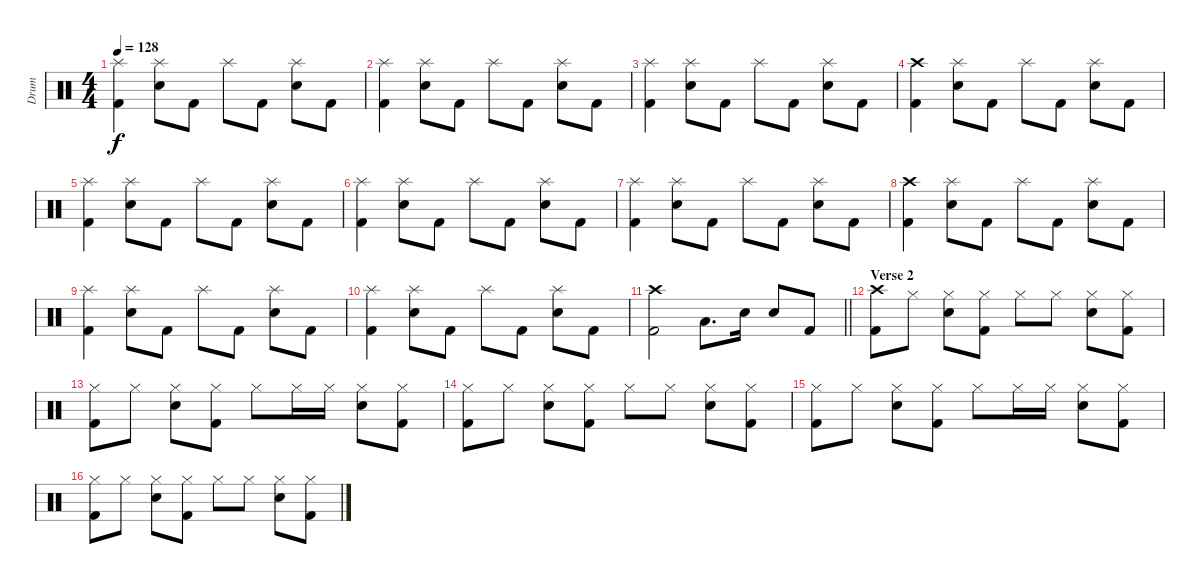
\track ("Drum" "Drum") {instrument percussion}
\staff {score}
\articulation defaults
\ts (4 4)
\tempo 128
\clef neutral
\ks c
("Splash (hit)" "Kick (hit) 2").4{dy f} ("Splash (hit)" "Electric Snare (hit)").8 "Kick (hit) 2".8 "Splash (hit)".8 "Kick (hit) 2".8 ("Splash (hit)" "Electric Snare (hit)").8 "Kick (hit) 2".8 |
("Splash (hit)" "Kick (hit) 2").4 ("Splash (hit)" "Electric Snare (hit)").8 "Kick (hit) 2".8 "Splash (hit)".8 "Kick (hit) 2".8 ("Splash (hit)" "Electric Snare (hit)").8 "Kick (hit) 2".8 |
("Splash (hit)" "Kick (hit) 2").4 ("Splash (hit)" "Electric Snare (hit)").8 "Kick (hit) 2".8 "Splash (hit)".8 "Kick (hit) 2".8 ("Splash (hit)" "Electric Snare (hit)").8 "Kick (hit) 2".8 |
("Crash high (hit)" "Kick (hit) 2").4 ("Splash (hit)" "Electric Snare (hit)").8 "Kick (hit) 2".8 "Splash (hit)".8 "Kick (hit) 2".8 ("Splash (hit)" "Electric Snare (hit)").8 "Kick (hit) 2".8 |
("Splash (hit)" "Kick (hit) 2").4 ("Splash (hit)" "Electric Snare (hit)").8 "Kick (hit) 2".8 "Splash (hit)".8 "Kick (hit) 2".8 ("Splash (hit)" "Electric Snare (hit)").8 "Kick (hit) 2".8 |
("Splash (hit)" "Kick (hit) 2").4 ("Splash (hit)" "Electric Snare (hit)").8 "Kick (hit) 2".8 "Splash (hit)".8 "Kick (hit) 2".8 ("Splash (hit)" "Electric Snare (hit)").8 "Kick (hit) 2".8 |
("Splash (hit)" "Kick (hit) 2").4 ("Splash (hit)" "Electric Snare (hit)").8 "Kick (hit) 2".8 "Splash (hit)".8 "Kick (hit) 2".8 ("Splash (hit)" "Electric Snare (hit)").8 "Kick (hit) 2".8 |
("Crash high (hit)" "Kick (hit) 2").4 ("Splash (hit)" "Electric Snare (hit)").8 "Kick (hit) 2".8 "Splash (hit)".8 "Kick (hit) 2".8 ("Splash (hit)" "Electric Snare (hit)").8 "Kick (hit) 2".8 |
("Splash (hit)" "Kick (hit) 2").4 ("Splash (hit)" "Electric Snare (hit)").8 "Kick (hit) 2".8 "Splash (hit)".8 "Kick (hit) 2".8 ("Splash (hit)" "Electric Snare (hit)").8 "Kick (hit) 2".8 |
("Splash (hit)" "Kick (hit) 2").4 ("Splash (hit)" "Electric Snare (hit)").8 "Kick (hit) 2".8 "Splash (hit)".8 "Kick (hit) 2".8 ("Splash (hit)" "Electric Snare (hit)").8 "Kick (hit) 2".8 |
\barLineRight lightlight
("Crash high (hit)" "Kick (hit) 2").2 "Low Tom (hit)".8{d} "Electric Snare (hit)".16 "Electric Snare (hit)".8 "Kick (hit) 2".8 |
\section ("" "Verse 2")
("Crash high (hit)" "Kick (hit) 2").8 "Hi-Hat (closed)".8 ("Hi-Hat (closed)" "Electric Snare (hit)").8 ("Hi-Hat (closed)" "Kick (hit) 2").8 "Hi-Hat (closed)".8 "Hi-Hat (closed)".8 ("Hi-Hat (closed)" "Electric Snare (hit)").8 ("Hi-Hat (closed)" "Kick (hit) 2").8 |
("Hi-Hat (closed)" "Kick (hit) 2").8 "Hi-Hat (closed)".8 ("Hi-Hat (closed)" "Electric Snare (hit)").8 ("Hi-Hat (closed)" "Kick (hit) 2").8 "Hi-Hat (closed)".8 "Hi-Hat (closed)".16 "Hi-Hat (closed)".16 ("Hi-Hat (closed)" "Electric Snare (hit)").8 ("Hi-Hat (closed)" "Kick (hit) 2").8 |
("Hi-Hat (closed)" "Kick (hit) 2").8 "Hi-Hat (closed)".8 ("Hi-Hat (closed)" "Electric Snare (hit)").8 ("Hi-Hat (closed)" "Kick (hit) 2").8 "Hi-Hat (closed)".8 "Hi-Hat (closed)".8 ("Hi-Hat (closed)" "Electric Snare (hit)").8 ("Hi-Hat (closed)" "Kick (hit) 2").8 |
("Hi-Hat (closed)" "Kick (hit) 2").8 "Hi-Hat (closed)".8 ("Hi-Hat (closed)" "Electric Snare (hit)").8 ("Hi-Hat (closed)" "Kick (hit) 2").8 "Hi-Hat (closed)".8 "Hi-Hat (closed)".16 "Hi-Hat (closed)".16 ("Hi-Hat (closed)" "Electric Snare (hit)").8 ("Hi-Hat (closed)" "Kick (hit) 2").8 |
("Hi-Hat (closed)" "Kick (hit) 2").8 "Hi-Hat (closed)".8 ("Hi-Hat (closed)" "Electric Snare (hit)").8 ("Hi-Hat (closed)" "Kick (hit) 2").8 "Hi-Hat (closed)".8 "Hi-Hat (closed)".8 ("Hi-Hat (closed)" "Electric Snare (hit)").8 ("Hi-Hat (closed)" "Kick (hit) 2").8
